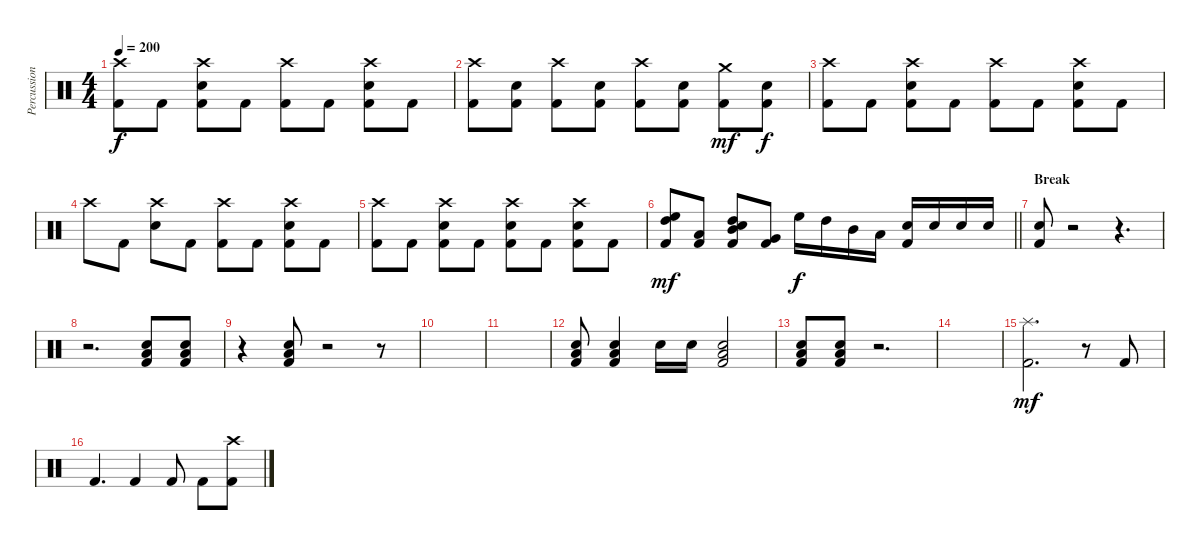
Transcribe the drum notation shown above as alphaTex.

\track ("Percussion" "Percussion") {instrument percussion}
\staff {score}
\articulation defaults
\ts (4 4)
\tempo 200
\clef neutral
\ks c
("Crash high (hit)" "Kick (hit) 2").8{dy f} "Kick (hit) 2".8 ("Crash high (hit)" "Snare (hit) 2" "Kick (hit) 2").8 "Kick (hit) 2".8 ("Crash high (hit)" "Kick (hit) 2").8 "Kick (hit) 2".8 ("Crash high (hit)" "Snare (hit) 2" "Kick (hit) 2").8 "Kick (hit) 2".8 |
("Crash high (hit)" "Kick (hit) 2").8 ("Snare (hit) 2" "Kick (hit) 2").8 ("Crash high (hit)" "Kick (hit) 2").8 ("Snare (hit) 2" "Kick (hit) 2").8 ("Crash high (hit)" "Kick (hit) 2").8 ("Snare (hit) 2" "Kick (hit) 2").8 ("Crash medium (hit)" "Kick (hit) 2").8{dy mf} ("Snare (hit) 2" "Kick (hit) 2").8{dy f} |
("Crash high (hit)" "Kick (hit) 2").8 "Kick (hit) 2".8 ("Crash high (hit)" "Snare (hit) 2" "Kick (hit) 2").8 "Kick (hit) 2".8 ("Crash high (hit)" "Kick (hit) 2").8 "Kick (hit) 2".8 ("Crash high (hit)" "Snare (hit) 2" "Kick (hit) 2").8 "Kick (hit) 2".8 |
"Crash high (hit)".8 "Kick (hit) 2".8 ("Crash high (hit)" "Snare (hit) 2").8 "Kick (hit) 2".8 ("Crash high (hit)" "Kick (hit) 2").8 "Kick (hit) 2".8 ("Crash high (hit)" "Snare (hit) 2" "Kick (hit) 2").8 "Kick (hit) 2".8 |
("Crash high (hit)" "Kick (hit) 2").8 "Kick (hit) 2".8 ("Crash high (hit)" "Snare (hit) 2" "Kick (hit) 2").8 "Kick (hit) 2".8 ("Crash high (hit)" "Snare (hit) 2" "Kick (hit) 2").8 "Kick (hit) 2".8 ("Crash high (hit)" "Snare (hit) 2" "Kick (hit) 2").8 "Kick (hit) 2".8 |
\barLineRight lightlight
("High Floor Tom (hit)" "High Tom (hit)" "Kick (hit) 2").8{dy mf} ("Low Tom (hit)" "Kick (hit) 2").8 ("Snare (hit) 2" "High Tom (hit)" "Mid Tom (hit)" "Kick (hit) 2").8 ("Very Low Tom (hit)" "Kick (hit) 2").8 "High Floor Tom (hit)".16{dy f} "High Tom (hit)".16 "Mid Tom (hit)".16 "Low Tom (hit)".16 ("Snare (hit) 2" "Kick (hit) 2").16 "Snare (hit) 2".16 "Snare (hit) 2".16 "Snare (hit) 2".16 |
\section ("" "Break")
("Snare (hit) 2" "Kick (hit) 2").8 r.2 r.4{d} |
r.2{d} ("Snare (hit) 2" "Low Tom (hit)" "Kick (hit) 2").8 ("Snare (hit) 2" "Low Tom (hit)" "Kick (hit) 2").8 |
r.4 ("Snare (hit) 2" "Low Tom (hit)" "Kick (hit) 2").8 r.2 r.8 |
|
|
("Snare (hit) 2" "Low Tom (hit)" "Kick (hit) 2").8 ("Snare (hit) 2" "Low Tom (hit)" "Kick (hit) 2").4 "Snare (hit) 2".16 "Snare (hit) 2".16 ("Snare (hit) 2" "Low Tom (hit)" "Kick (hit) 2").2 |
("Snare (hit) 2" "Low Tom (hit)" "Kick (hit) 2").8 ("Snare (hit) 2" "Low Tom (hit)" "Kick (hit) 2").8 r.2{d} |
|
("Splash (hit)" "Kick (hit) 2").2{d dy mf} r.8 "Kick (hit) 2".8 |
"Kick (hit) 2".4{d} "Kick (hit) 2".4 "Kick (hit) 2".8 "Kick (hit) 2".8 ("Crash high (hit)" "Kick (hit) 2").8
